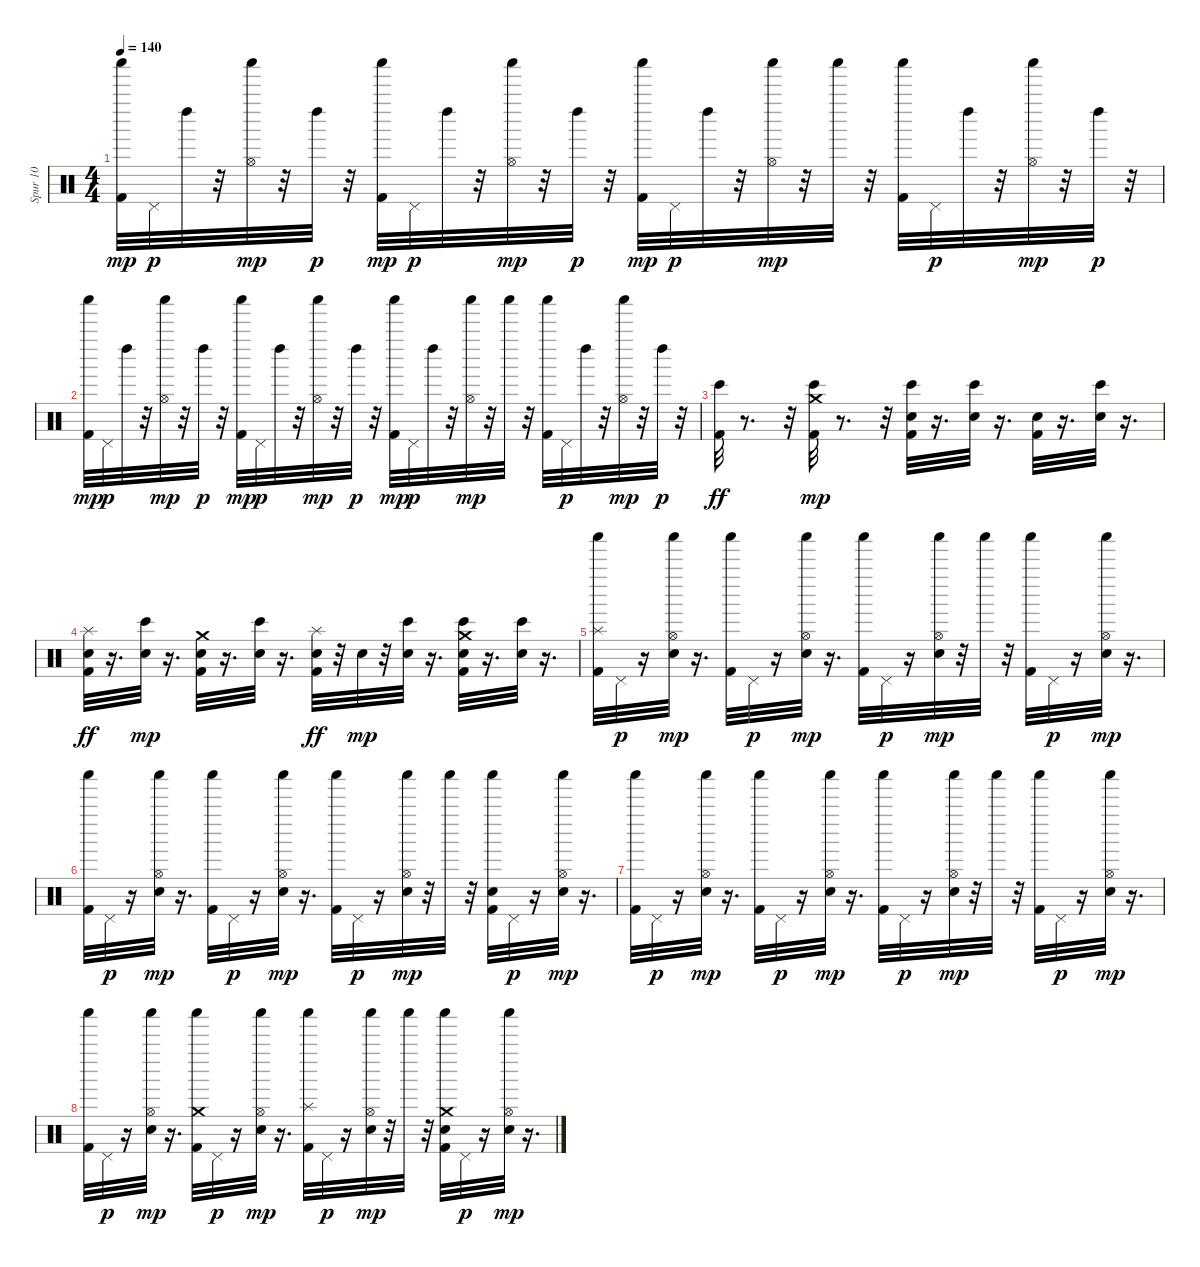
\track ("Spur 10" "Spur 10") {instrument percussion}
\staff {score}
\articulation defaults
\ts (4 4)
\tempo 140
\clef neutral
\ks c
("Kick (hit) 2" "Shaker (hit)").32{dy mp} "Pedal Hi-Hat (hit)".32{dy p} "Left Maraca (hit)".32 r.32 ("Hi-Hat (open)" "Shaker (hit)").32{dy mp} r.32 "Left Maraca (hit)".32{dy p} r.32 ("Kick (hit) 2" "Shaker (hit)").32{dy mp} "Pedal Hi-Hat (hit)".32{dy p} "Left Maraca (hit)".32 r.32 ("Hi-Hat (open)" "Shaker (hit)").32{dy mp} r.32 "Left Maraca (hit)".32{dy p} r.32 ("Kick (hit) 2" "Shaker (hit)").32{dy mp} "Pedal Hi-Hat (hit)".32{dy p} "Left Maraca (hit)".32 r.32 ("Hi-Hat (open)" "Shaker (hit)").32{dy mp} r.32 "Shaker (hit)".32 r.32 ("Kick (hit) 2" "Shaker (hit)").32 "Pedal Hi-Hat (hit)".32{dy p} "Left Maraca (hit)".32 r.32 ("Hi-Hat (open)" "Shaker (hit)").32{dy mp} r.32 "Left Maraca (hit)".32{dy p} r.32 |
("Kick (hit) 2" "Shaker (hit)").32{dy mp} "Pedal Hi-Hat (hit)".32{dy p} "Left Maraca (hit)".32 r.32 ("Hi-Hat (open)" "Shaker (hit)").32{dy mp} r.32 "Left Maraca (hit)".32{dy p} r.32 ("Kick (hit) 2" "Shaker (hit)").32{dy mp} "Pedal Hi-Hat (hit)".32{dy p} "Left Maraca (hit)".32 r.32 ("Hi-Hat (open)" "Shaker (hit)").32{dy mp} r.32 "Left Maraca (hit)".32{dy p} r.32 ("Kick (hit) 2" "Shaker (hit)").32{dy mp} "Pedal Hi-Hat (hit)".32{dy p} "Left Maraca (hit)".32 r.32 ("Hi-Hat (open)" "Shaker (hit)").32{dy mp} r.32 "Shaker (hit)".32 r.32 ("Kick (hit) 2" "Shaker (hit)").32 "Pedal Hi-Hat (hit)".32{dy p} "Left Maraca (hit)".32 r.32 ("Hi-Hat (open)" "Shaker (hit)").32{dy mp} r.32 "Left Maraca (hit)".32{dy p} r.32 |
("Bongo High (hit)" "Kick (hit) 2").32{dy ff} r.8{d} r.32 ("Bongo High (hit)" "Kick (hit) 2" "Crash medium (hit)").32{dy mp} r.8{d} r.32 ("Bongo High (hit)" "Kick (hit) 2" "Hand Clap (hit)").32 r.16{d} ("Bongo High (hit)" "Hand Clap (hit)").32 r.16{d} ("Kick (hit) 2" "Hand Clap (hit)").32 r.16{d} ("Bongo High (hit)" "Hand Clap (hit)").32 r.16{d} |
("Kick (hit) 2" "Hand Clap (hit)" "Splash (hit)").32{dy ff} r.16{d} ("Bongo High (hit)" "Hand Clap (hit)").32{dy mp} r.16{d} ("Kick (hit) 2" "Hand Clap (hit)" "Crash medium (hit)").32 r.16{d} ("Bongo High (hit)" "Hand Clap (hit)").32 r.16{d} ("Kick (hit) 2" "Hand Clap (hit)" "Splash (hit)").32{dy ff} r.32 "Hand Clap (hit)".32{dy mp} r.32 ("Bongo High (hit)" "Hand Clap (hit)").32 r.16{d} ("Bongo High (hit)" "Kick (hit) 2" "Hand Clap (hit)" "Crash medium (hit)").32 r.16{d} ("Bongo High (hit)" "Hand Clap (hit)").32 r.16{d} |
("Kick (hit) 2" "Splash (hit)" "Shaker (hit)").32 "Pedal Hi-Hat (hit)".32{dy p} r.16 ("Hand Clap (hit)" "Hi-Hat (open)" "Shaker (hit)").32{dy mp} r.16{d} ("Kick (hit) 2" "Shaker (hit)").32 "Pedal Hi-Hat (hit)".32{dy p} r.16 ("Hand Clap (hit)" "Hi-Hat (open)" "Shaker (hit)").32{dy mp} r.16{d} ("Kick (hit) 2" "Shaker (hit)").32 "Pedal Hi-Hat (hit)".32{dy p} r.16 ("Hand Clap (hit)" "Hi-Hat (open)" "Shaker (hit)").32{dy mp} r.32 "Shaker (hit)".32 r.32 ("Kick (hit) 2" "Shaker (hit)").32 "Pedal Hi-Hat (hit)".32{dy p} r.16 ("Hand Clap (hit)" "Hi-Hat (open)" "Shaker (hit)").32{dy mp} r.16{d} |
("Kick (hit) 2" "Shaker (hit)").32 "Pedal Hi-Hat (hit)".32{dy p} r.16 ("Hand Clap (hit)" "Hi-Hat (open)" "Shaker (hit)").32{dy mp} r.16{d} ("Kick (hit) 2" "Shaker (hit)").32 "Pedal Hi-Hat (hit)".32{dy p} r.16 ("Hand Clap (hit)" "Hi-Hat (open)" "Shaker (hit)").32{dy mp} r.16{d} ("Kick (hit) 2" "Shaker (hit)").32 "Pedal Hi-Hat (hit)".32{dy p} r.16 ("Hand Clap (hit)" "Hi-Hat (open)" "Shaker (hit)").32{dy mp} r.32 "Shaker (hit)".32 r.32 ("Kick (hit) 2" "Hand Clap (hit)" "Shaker (hit)").32 "Pedal Hi-Hat (hit)".32{dy p} r.16 ("Hand Clap (hit)" "Hi-Hat (open)" "Shaker (hit)").32{dy mp} r.16{d} |
("Kick (hit) 2" "Shaker (hit)").32 "Pedal Hi-Hat (hit)".32{dy p} r.16 ("Hand Clap (hit)" "Hi-Hat (open)" "Shaker (hit)").32{dy mp} r.16{d} ("Kick (hit) 2" "Shaker (hit)").32 "Pedal Hi-Hat (hit)".32{dy p} r.16 ("Hand Clap (hit)" "Hi-Hat (open)" "Shaker (hit)").32{dy mp} r.16{d} ("Kick (hit) 2" "Shaker (hit)").32 "Pedal Hi-Hat (hit)".32{dy p} r.16 ("Hand Clap (hit)" "Hi-Hat (open)" "Shaker (hit)").32{dy mp} r.32 "Shaker (hit)".32 r.32 ("Kick (hit) 2" "Shaker (hit)").32 "Pedal Hi-Hat (hit)".32{dy p} r.16 ("Hand Clap (hit)" "Hi-Hat (open)" "Shaker (hit)").32{dy mp} r.16{d} |
("Kick (hit) 2" "Shaker (hit)").32 "Pedal Hi-Hat (hit)".32{dy p} r.16 ("Hand Clap (hit)" "Hi-Hat (open)" "Shaker (hit)").32{dy mp} r.16{d} ("Kick (hit) 2" "Crash medium (hit)" "Shaker (hit)").32 "Pedal Hi-Hat (hit)".32{dy p} r.16 ("Hand Clap (hit)" "Hi-Hat (open)" "Shaker (hit)").32{dy mp} r.16{d} ("Kick (hit) 2" "Splash (hit)" "Shaker (hit)").32 "Pedal Hi-Hat (hit)".32{dy p} r.16 ("Hand Clap (hit)" "Hi-Hat (open)" "Shaker (hit)").32{dy mp} r.32 "Shaker (hit)".32 r.32 ("Kick (hit) 2" "Hand Clap (hit)" "Crash medium (hit)" "Shaker (hit)").32 "Pedal Hi-Hat (hit)".32{dy p} r.16 ("Hand Clap (hit)" "Hi-Hat (open)" "Shaker (hit)").32{dy mp} r.16{d}
